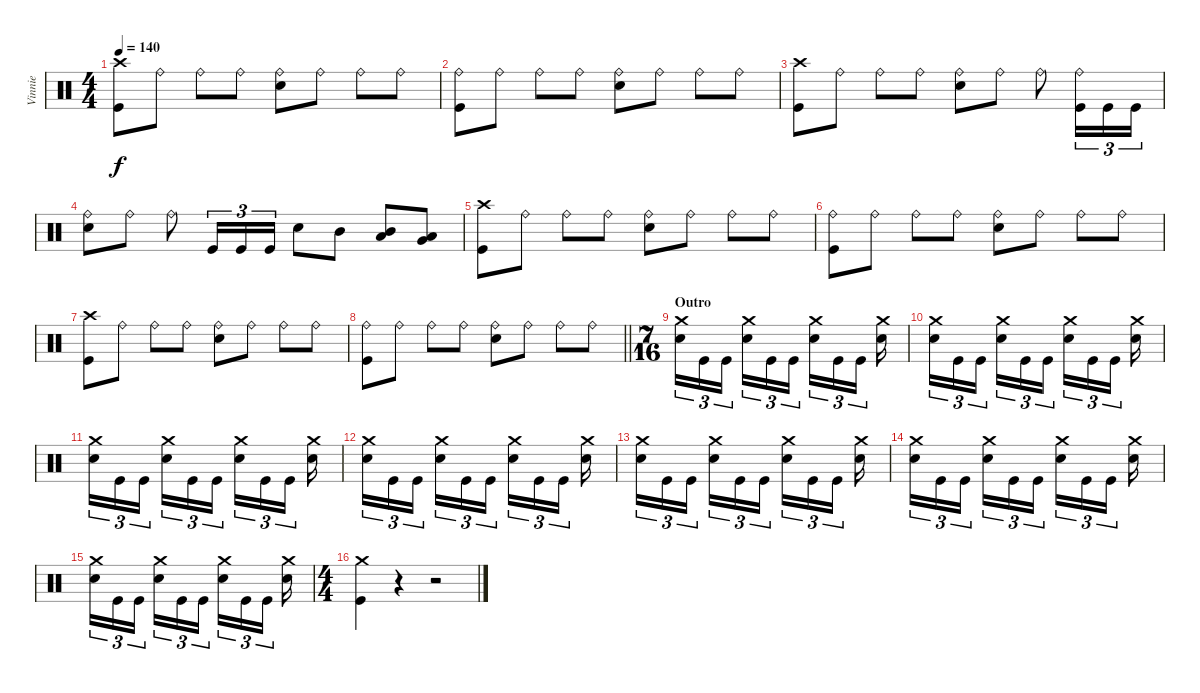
\track ("Vinnie" "Vinnie") {instrument percussion}
\staff {score}
\articulation defaults
\ts (4 4)
\tempo 140
\clef neutral
\ks c
("Crash high (hit)" "Kick (hit)").8{dy f} "Ride (bell)".8 "Ride (bell)".8 "Ride (bell)".8 ("Ride (bell)" "Electric Snare (hit)").8 "Ride (bell)".8 "Ride (bell)".8 "Ride (bell)".8 |
("Ride (bell)" "Kick (hit)").8 "Ride (bell)".8 "Ride (bell)".8 "Ride (bell)".8 ("Ride (bell)" "Electric Snare (hit)").8 "Ride (bell)".8 "Ride (bell)".8 "Ride (bell)".8 |
("Crash high (hit)" "Kick (hit)").8 "Ride (bell)".8 "Ride (bell)".8 "Ride (bell)".8 ("Ride (bell)" "Electric Snare (hit)").8 "Ride (bell)".8 "Ride (bell)".8 ("Ride (bell)" "Kick (hit)").16{tu (3 2)} "Kick (hit)".16{tu (3 2)} "Kick (hit)".16{tu (3 2)} |
("Ride (bell)" "Electric Snare (hit)").8 "Ride (bell)".8 "Ride (bell)".8 "Kick (hit)".16{tu (3 2)} "Kick (hit)".16{tu (3 2)} "Kick (hit)".16{tu (3 2)} "Electric Snare (hit)".8 "Mid Tom (hit)".8 ("Mid Tom (hit)" "Low Tom (hit)").8 ("Low Tom (hit)" "Very Low Tom (hit)").8 |
("Crash high (hit)" "Kick (hit)").8 "Ride (bell)".8 "Ride (bell)".8 "Ride (bell)".8 ("Ride (bell)" "Electric Snare (hit)").8 "Ride (bell)".8 "Ride (bell)".8 "Ride (bell)".8 |
("Ride (bell)" "Kick (hit)").8 "Ride (bell)".8 "Ride (bell)".8 "Ride (bell)".8 ("Ride (bell)" "Electric Snare (hit)").8 "Ride (bell)".8 "Ride (bell)".8 "Ride (bell)".8 |
("Crash high (hit)" "Kick (hit)").8 "Ride (bell)".8 "Ride (bell)".8 "Ride (bell)".8 ("Ride (bell)" "Electric Snare (hit)").8 "Ride (bell)".8 "Ride (bell)".8 "Ride (bell)".8 |
\barLineRight lightlight
("Ride (bell)" "Kick (hit)").8 "Ride (bell)".8 "Ride (bell)".8 "Ride (bell)".8 ("Ride (bell)" "Electric Snare (hit)").8 "Ride (bell)".8 "Ride (bell)".8 "Ride (bell)".8 |
\ts (7 16)
\section ("" "Outro")
("Crash medium (hit)" "Electric Snare (hit)").16{tu (3 2)} "Kick (hit)".16{tu (3 2)} "Kick (hit)".16{tu (3 2)} ("Crash medium (hit)" "Electric Snare (hit)").16{tu (3 2)} "Kick (hit)".16{tu (3 2)} "Kick (hit)".16{tu (3 2)} ("Crash medium (hit)" "Electric Snare (hit)").16{tu (3 2)} "Kick (hit)".16{tu (3 2)} "Kick (hit)".16{tu (3 2)} ("Crash medium (hit)" "Electric Snare (hit)").16 |
("Crash medium (hit)" "Electric Snare (hit)").16{tu (3 2)} "Kick (hit)".16{tu (3 2)} "Kick (hit)".16{tu (3 2)} ("Crash medium (hit)" "Electric Snare (hit)").16{tu (3 2)} "Kick (hit)".16{tu (3 2)} "Kick (hit)".16{tu (3 2)} ("Crash medium (hit)" "Electric Snare (hit)").16{tu (3 2)} "Kick (hit)".16{tu (3 2)} "Kick (hit)".16{tu (3 2)} ("Crash medium (hit)" "Electric Snare (hit)").16 |
("Crash medium (hit)" "Electric Snare (hit)").16{tu (3 2)} "Kick (hit)".16{tu (3 2)} "Kick (hit)".16{tu (3 2)} ("Crash medium (hit)" "Electric Snare (hit)").16{tu (3 2)} "Kick (hit)".16{tu (3 2)} "Kick (hit)".16{tu (3 2)} ("Crash medium (hit)" "Electric Snare (hit)").16{tu (3 2)} "Kick (hit)".16{tu (3 2)} "Kick (hit)".16{tu (3 2)} ("Crash medium (hit)" "Electric Snare (hit)").16 |
("Crash medium (hit)" "Electric Snare (hit)").16{tu (3 2)} "Kick (hit)".16{tu (3 2)} "Kick (hit)".16{tu (3 2)} ("Crash medium (hit)" "Electric Snare (hit)").16{tu (3 2)} "Kick (hit)".16{tu (3 2)} "Kick (hit)".16{tu (3 2)} ("Crash medium (hit)" "Electric Snare (hit)").16{tu (3 2)} "Kick (hit)".16{tu (3 2)} "Kick (hit)".16{tu (3 2)} ("Crash medium (hit)" "Electric Snare (hit)").16 |
("Crash medium (hit)" "Electric Snare (hit)").16{tu (3 2)} "Kick (hit)".16{tu (3 2)} "Kick (hit)".16{tu (3 2)} ("Crash medium (hit)" "Electric Snare (hit)").16{tu (3 2)} "Kick (hit)".16{tu (3 2)} "Kick (hit)".16{tu (3 2)} ("Crash medium (hit)" "Electric Snare (hit)").16{tu (3 2)} "Kick (hit)".16{tu (3 2)} "Kick (hit)".16{tu (3 2)} ("Crash medium (hit)" "Electric Snare (hit)").16 |
("Crash medium (hit)" "Electric Snare (hit)").16{tu (3 2)} "Kick (hit)".16{tu (3 2)} "Kick (hit)".16{tu (3 2)} ("Crash medium (hit)" "Electric Snare (hit)").16{tu (3 2)} "Kick (hit)".16{tu (3 2)} "Kick (hit)".16{tu (3 2)} ("Crash medium (hit)" "Electric Snare (hit)").16{tu (3 2)} "Kick (hit)".16{tu (3 2)} "Kick (hit)".16{tu (3 2)} ("Crash medium (hit)" "Electric Snare (hit)").16 |
("Crash medium (hit)" "Electric Snare (hit)").16{tu (3 2)} "Kick (hit)".16{tu (3 2)} "Kick (hit)".16{tu (3 2)} ("Crash medium (hit)" "Electric Snare (hit)").16{tu (3 2)} "Kick (hit)".16{tu (3 2)} "Kick (hit)".16{tu (3 2)} ("Crash medium (hit)" "Electric Snare (hit)").16{tu (3 2)} "Kick (hit)".16{tu (3 2)} "Kick (hit)".16{tu (3 2)} ("Crash medium (hit)" "Electric Snare (hit)").16 |
\ts (4 4)
("Crash medium (hit)" "Kick (hit)").4 r.4 r.2
